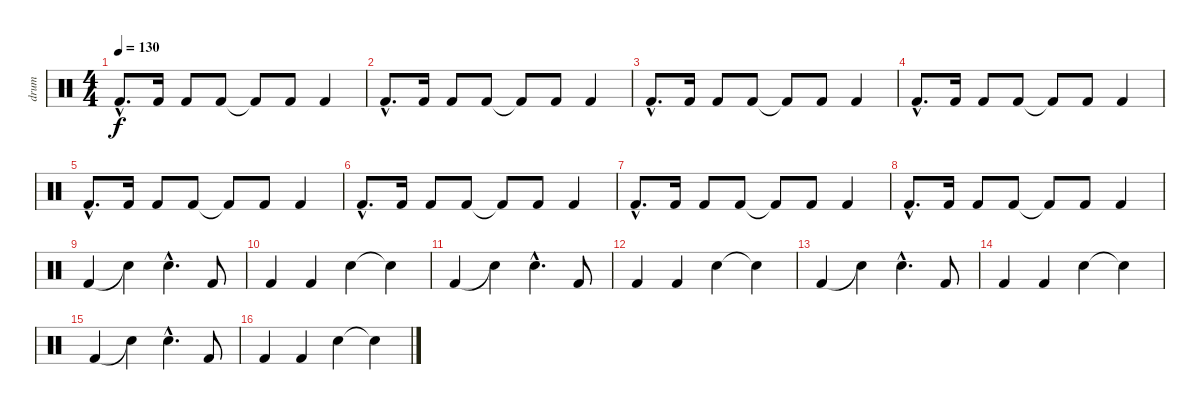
\track ("drum" "drum") {instrument percussion}
\staff {score}
\articulation defaults
\ts (4 4)
\tempo 130
\clef neutral
\ks c "Kick (hit) 2"{hac}.8{d dy f} "Kick (hit) 2".16 "Kick (hit) 2".8 "Kick (hit) 2".8 "Kick (hit) 2"{t}.8 "Kick (hit) 2".8 "Kick (hit) 2".4
|
"Kick (hit) 2"{hac}.8{d} "Kick (hit) 2".16 "Kick (hit) 2".8 "Kick (hit) 2".8 "Kick (hit) 2"{t}.8 "Kick (hit) 2".8 "Kick (hit) 2".4 |
"Kick (hit) 2"{hac}.8{d} "Kick (hit) 2".16 "Kick (hit) 2".8 "Kick (hit) 2".8 "Kick (hit) 2"{t}.8 "Kick (hit) 2".8 "Kick (hit) 2".4 |
"Kick (hit) 2"{hac}.8{d} "Kick (hit) 2".16 "Kick (hit) 2".8 "Kick (hit) 2".8 "Kick (hit) 2"{t}.8 "Kick (hit) 2".8 "Kick (hit) 2".4 |
"Kick (hit) 2"{hac}.8{d} "Kick (hit) 2".16 "Kick (hit) 2".8 "Kick (hit) 2".8 "Kick (hit) 2"{t}.8 "Kick (hit) 2".8 "Kick (hit) 2".4 |
"Kick (hit) 2"{hac}.8{d} "Kick (hit) 2".16 "Kick (hit) 2".8 "Kick (hit) 2".8 "Kick (hit) 2"{t}.8 "Kick (hit) 2".8 "Kick (hit) 2".4 |
"Kick (hit) 2"{hac}.8{d} "Kick (hit) 2".16 "Kick (hit) 2".8 "Kick (hit) 2".8 "Kick (hit) 2"{t}.8 "Kick (hit) 2".8 "Kick (hit) 2".4 |
"Kick (hit) 2"{hac}.8{d} "Kick (hit) 2".16 "Kick (hit) 2".8 "Kick (hit) 2".8 "Kick (hit) 2"{t}.8 "Kick (hit) 2".8 "Kick (hit) 2".4 |
"Kick (hit) 2".4 "Snare (hit)"{t}.4 "Snare (hit) 2"{hac}.4{d} "Kick (hit) 2".8 |
"Kick (hit) 2".4 "Kick (hit) 2".4 "Snare (hit) 2".4 "Snare (hit)"{t}.4 |
"Kick (hit) 2".4 "Snare (hit)"{t}.4 "Snare (hit) 2"{hac}.4{d} "Kick (hit) 2".8 |
"Kick (hit) 2".4 "Kick (hit) 2".4 "Snare (hit) 2".4 "Snare (hit)"{t}.4 |
"Kick (hit) 2".4 "Snare (hit)"{t}.4 "Snare (hit) 2"{hac}.4{d} "Kick (hit) 2".8 |
"Kick (hit) 2".4 "Kick (hit) 2".4 "Snare (hit) 2".4 "Snare (hit)"{t}.4 |
"Kick (hit) 2".4 "Snare (hit)"{t}.4 "Snare (hit) 2"{hac}.4{d} "Kick (hit) 2".8 |
"Kick (hit) 2".4 "Kick (hit) 2".4 "Snare (hit) 2".4 "Snare (hit)"{t}.4
